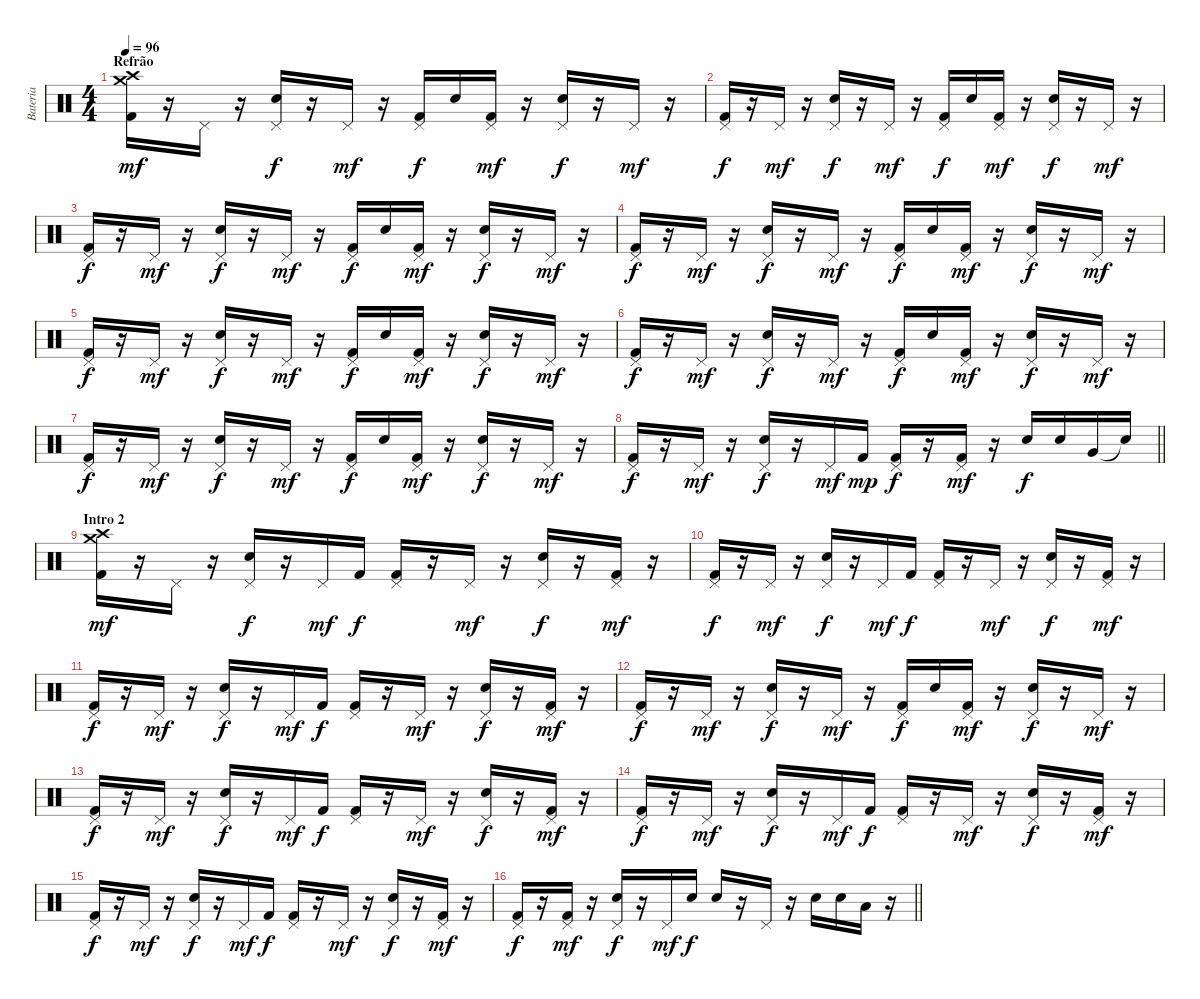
\track ("Bateria" "Bateria") {instrument percussion}
\staff {score}
\articulation defaults
\ts (4 4)
\section ("" "Refrão")
\tempo 96
\clef neutral
\ks c
("Crash medium (hit)" "Crash high (hit)" "Kick (hit) 2").16{dy mf} r.16 "Pedal Hi-Hat (hit)".16 r.16 ("Pedal Hi-Hat (hit)" "Electric Snare (hit)").16{dy f} r.16 "Pedal Hi-Hat (hit)".16{dy mf} r.16 ("Pedal Hi-Hat (hit)" "Kick (hit) 2").16{dy f} "Electric Snare (hit)".16 ("Pedal Hi-Hat (hit)" "Kick (hit) 2").16{dy mf} r.16 ("Pedal Hi-Hat (hit)" "Electric Snare (hit)").16{dy f} r.16 "Pedal Hi-Hat (hit)".16{dy mf} r.16 |
("Pedal Hi-Hat (hit)" "Kick (hit) 2").16{dy f} r.16 "Pedal Hi-Hat (hit)".16{dy mf} r.16 ("Pedal Hi-Hat (hit)" "Electric Snare (hit)").16{dy f} r.16 "Pedal Hi-Hat (hit)".16{dy mf} r.16 ("Pedal Hi-Hat (hit)" "Kick (hit) 2").16{dy f} "Electric Snare (hit)".16 ("Pedal Hi-Hat (hit)" "Kick (hit) 2").16{dy mf} r.16 ("Pedal Hi-Hat (hit)" "Electric Snare (hit)").16{dy f} r.16 "Pedal Hi-Hat (hit)".16{dy mf} r.16 |
("Pedal Hi-Hat (hit)" "Kick (hit) 2").16{dy f} r.16 "Pedal Hi-Hat (hit)".16{dy mf} r.16 ("Pedal Hi-Hat (hit)" "Electric Snare (hit)").16{dy f} r.16 "Pedal Hi-Hat (hit)".16{dy mf} r.16 ("Pedal Hi-Hat (hit)" "Kick (hit) 2").16{dy f} "Electric Snare (hit)".16 ("Pedal Hi-Hat (hit)" "Kick (hit) 2").16{dy mf} r.16 ("Pedal Hi-Hat (hit)" "Electric Snare (hit)").16{dy f} r.16 "Pedal Hi-Hat (hit)".16{dy mf} r.16 |
("Pedal Hi-Hat (hit)" "Kick (hit) 2").16{dy f} r.16 "Pedal Hi-Hat (hit)".16{dy mf} r.16 ("Pedal Hi-Hat (hit)" "Electric Snare (hit)").16{dy f} r.16 "Pedal Hi-Hat (hit)".16{dy mf} r.16 ("Pedal Hi-Hat (hit)" "Kick (hit) 2").16{dy f} "Electric Snare (hit)".16 ("Pedal Hi-Hat (hit)" "Kick (hit) 2").16{dy mf} r.16 ("Pedal Hi-Hat (hit)" "Electric Snare (hit)").16{dy f} r.16 "Pedal Hi-Hat (hit)".16{dy mf} r.16 |
("Pedal Hi-Hat (hit)" "Kick (hit) 2").16{dy f} r.16 "Pedal Hi-Hat (hit)".16{dy mf} r.16 ("Pedal Hi-Hat (hit)" "Electric Snare (hit)").16{dy f} r.16 "Pedal Hi-Hat (hit)".16{dy mf} r.16 ("Pedal Hi-Hat (hit)" "Kick (hit) 2").16{dy f} "Electric Snare (hit)".16 ("Pedal Hi-Hat (hit)" "Kick (hit) 2").16{dy mf} r.16 ("Pedal Hi-Hat (hit)" "Electric Snare (hit)").16{dy f} r.16 "Pedal Hi-Hat (hit)".16{dy mf} r.16 |
("Pedal Hi-Hat (hit)" "Kick (hit) 2").16{dy f} r.16 "Pedal Hi-Hat (hit)".16{dy mf} r.16 ("Pedal Hi-Hat (hit)" "Electric Snare (hit)").16{dy f} r.16 "Pedal Hi-Hat (hit)".16{dy mf} r.16 ("Pedal Hi-Hat (hit)" "Kick (hit) 2").16{dy f} "Electric Snare (hit)".16 ("Pedal Hi-Hat (hit)" "Kick (hit) 2").16{dy mf} r.16 ("Pedal Hi-Hat (hit)" "Electric Snare (hit)").16{dy f} r.16 "Pedal Hi-Hat (hit)".16{dy mf} r.16 |
("Pedal Hi-Hat (hit)" "Kick (hit) 2").16{dy f} r.16 "Pedal Hi-Hat (hit)".16{dy mf} r.16 ("Pedal Hi-Hat (hit)" "Electric Snare (hit)").16{dy f} r.16 "Pedal Hi-Hat (hit)".16{dy mf} r.16 ("Pedal Hi-Hat (hit)" "Kick (hit) 2").16{dy f} "Electric Snare (hit)".16 ("Pedal Hi-Hat (hit)" "Kick (hit) 2").16{dy mf} r.16 ("Pedal Hi-Hat (hit)" "Electric Snare (hit)").16{dy f} r.16 "Pedal Hi-Hat (hit)".16{dy mf} r.16 |
\barLineRight lightlight
("Pedal Hi-Hat (hit)" "Kick (hit) 2").16{dy f} r.16 "Pedal Hi-Hat (hit)".16{dy mf} r.16 ("Pedal Hi-Hat (hit)" "Electric Snare (hit)").16{dy f} r.16 "Pedal Hi-Hat (hit)".16{dy mf} "Kick (hit) 2".16{dy mp} ("Pedal Hi-Hat (hit)" "Kick (hit) 2").16{dy f} r.16 ("Pedal Hi-Hat (hit)" "Kick (hit) 2").16{dy mf} r.16 "Electric Snare (hit)".16{dy f} "Electric Snare (hit)".16 "Very Low Tom (hit)".16 "Snare (hit)"{t}.16 |
\section ("" "Intro 2")
("Crash medium (hit)" "Crash high (hit)" "Kick (hit) 2").16{dy mf} r.16 "Pedal Hi-Hat (hit)".16 r.16 ("Pedal Hi-Hat (hit)" "Electric Snare (hit)").16{dy f} r.16 "Pedal Hi-Hat (hit)".16{dy mf} "Kick (hit) 2".16{dy f} ("Pedal Hi-Hat (hit)" "Kick (hit) 2").16 r.16 "Pedal Hi-Hat (hit)".16{dy mf} r.16 ("Pedal Hi-Hat (hit)" "Electric Snare (hit)").16{dy f} r.16 ("Pedal Hi-Hat (hit)" "Kick (hit) 2").16{dy mf} r.16 |
("Pedal Hi-Hat (hit)" "Kick (hit) 2").16{dy f} r.16 "Pedal Hi-Hat (hit)".16{dy mf} r.16 ("Pedal Hi-Hat (hit)" "Electric Snare (hit)").16{dy f} r.16 "Pedal Hi-Hat (hit)".16{dy mf} "Kick (hit) 2".16{dy f} ("Pedal Hi-Hat (hit)" "Kick (hit) 2").16 r.16 "Pedal Hi-Hat (hit)".16{dy mf} r.16 ("Pedal Hi-Hat (hit)" "Electric Snare (hit)").16{dy f} r.16 ("Pedal Hi-Hat (hit)" "Kick (hit) 2").16{dy mf} r.16 |
("Pedal Hi-Hat (hit)" "Kick (hit) 2").16{dy f} r.16 "Pedal Hi-Hat (hit)".16{dy mf} r.16 ("Pedal Hi-Hat (hit)" "Electric Snare (hit)").16{dy f} r.16 "Pedal Hi-Hat (hit)".16{dy mf} "Kick (hit) 2".16{dy f} ("Pedal Hi-Hat (hit)" "Kick (hit) 2").16 r.16 "Pedal Hi-Hat (hit)".16{dy mf} r.16 ("Pedal Hi-Hat (hit)" "Electric Snare (hit)").16{dy f} r.16 ("Pedal Hi-Hat (hit)" "Kick (hit) 2").16{dy mf} r.16 |
("Pedal Hi-Hat (hit)" "Kick (hit) 2").16{dy f} r.16 "Pedal Hi-Hat (hit)".16{dy mf} r.16 ("Pedal Hi-Hat (hit)" "Electric Snare (hit)").16{dy f} r.16 "Pedal Hi-Hat (hit)".16{dy mf} r.16 ("Pedal Hi-Hat (hit)" "Kick (hit) 2").16{dy f} "Electric Snare (hit)".16 ("Pedal Hi-Hat (hit)" "Kick (hit) 2").16{dy mf} r.16 ("Pedal Hi-Hat (hit)" "Electric Snare (hit)").16{dy f} r.16 "Pedal Hi-Hat (hit)".16{dy mf} r.16 |
("Pedal Hi-Hat (hit)" "Kick (hit) 2").16{dy f} r.16 "Pedal Hi-Hat (hit)".16{dy mf} r.16 ("Pedal Hi-Hat (hit)" "Electric Snare (hit)").16{dy f} r.16 "Pedal Hi-Hat (hit)".16{dy mf} "Kick (hit) 2".16{dy f} ("Pedal Hi-Hat (hit)" "Kick (hit) 2").16 r.16 "Pedal Hi-Hat (hit)".16{dy mf} r.16 ("Pedal Hi-Hat (hit)" "Electric Snare (hit)").16{dy f} r.16 ("Pedal Hi-Hat (hit)" "Kick (hit) 2").16{dy mf} r.16 |
("Pedal Hi-Hat (hit)" "Kick (hit) 2").16{dy f} r.16 "Pedal Hi-Hat (hit)".16{dy mf} r.16 ("Pedal Hi-Hat (hit)" "Electric Snare (hit)").16{dy f} r.16 "Pedal Hi-Hat (hit)".16{dy mf} "Kick (hit) 2".16{dy f} ("Pedal Hi-Hat (hit)" "Kick (hit) 2").16 r.16 "Pedal Hi-Hat (hit)".16{dy mf} r.16 ("Pedal Hi-Hat (hit)" "Electric Snare (hit)").16{dy f} r.16 ("Pedal Hi-Hat (hit)" "Kick (hit) 2").16{dy mf} r.16 |
("Pedal Hi-Hat (hit)" "Kick (hit) 2").16{dy f} r.16 "Pedal Hi-Hat (hit)".16{dy mf} r.16 ("Pedal Hi-Hat (hit)" "Electric Snare (hit)").16{dy f} r.16 "Pedal Hi-Hat (hit)".16{dy mf} "Kick (hit) 2".16{dy f} ("Pedal Hi-Hat (hit)" "Kick (hit) 2").16 r.16 "Pedal Hi-Hat (hit)".16{dy mf} r.16 ("Pedal Hi-Hat (hit)" "Electric Snare (hit)").16{dy f} r.16 ("Pedal Hi-Hat (hit)" "Kick (hit) 2").16{dy mf} r.16 |
\barLineRight lightlight
("Pedal Hi-Hat (hit)" "Kick (hit) 2").16{dy f} r.16 ("Pedal Hi-Hat (hit)" "Kick (hit) 2").16{dy mf} r.16 ("Pedal Hi-Hat (hit)" "Electric Snare (hit)").16{dy f} r.16 "Pedal Hi-Hat (hit)".16{dy mf} "Electric Snare (hit)".16{dy f} "Electric Snare (hit)".16 r.16 "Pedal Hi-Hat (hit)".16 r.16 "Electric Snare (hit)".16 "Electric Snare (hit)".16 "Low Tom (hit)".16 r.16
